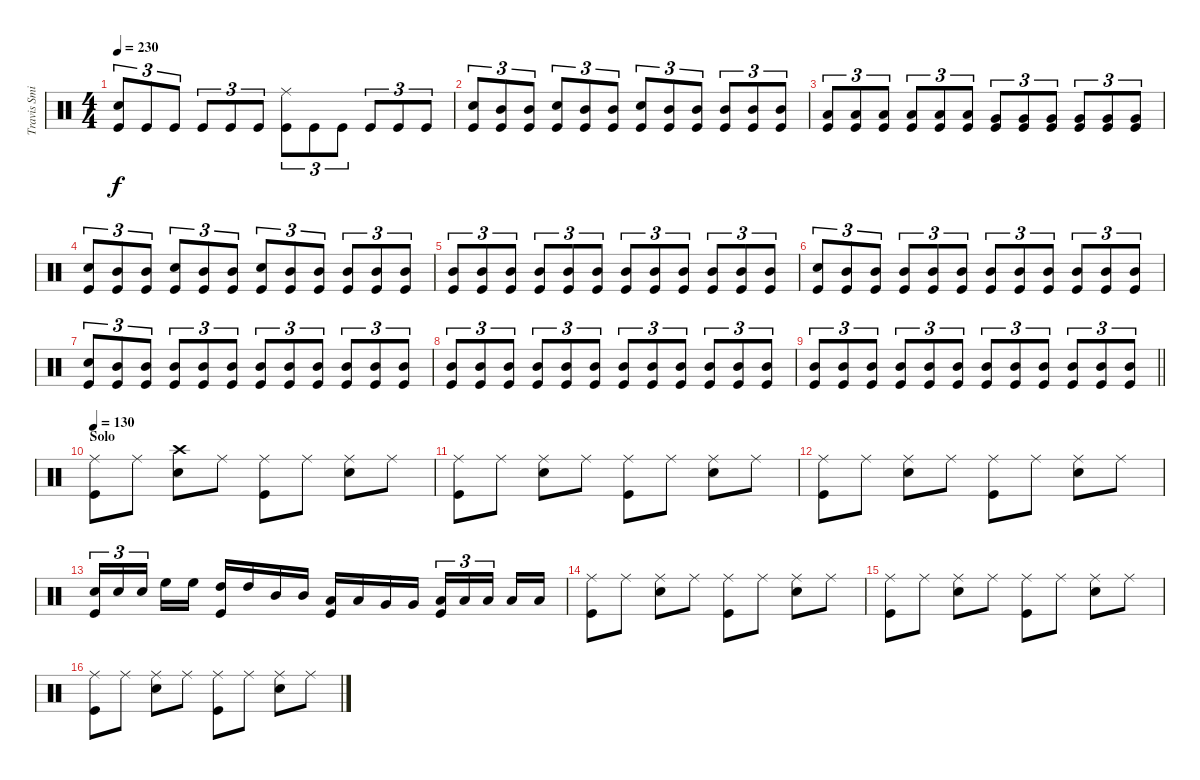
\track ("Travis Smith" "Travis Smi") {instrument percussion}
\staff {score}
\articulation defaults
\ts (4 4)
\tempo 230
\clef neutral
\ks c
("Snare (hit) 2" "Kick (hit)").8{tu (3 2) dy f} "Kick (hit)".8{tu (3 2)} "Kick (hit)".8{tu (3 2)} "Kick (hit)".8{tu (3 2)} "Kick (hit)".8{tu (3 2)} "Kick (hit)".8{tu (3 2)} ("Ride (middle)" "Kick (hit)").8{tu (3 2)} "Kick (hit)".8{tu (3 2)} "Kick (hit)".8{tu (3 2)} "Kick (hit)".8{tu (3 2)} "Kick (hit)".8{tu (3 2)} "Kick (hit)".8{tu (3 2)} |
("Snare (hit) 2" "Kick (hit)").8{tu (3 2)} ("Mid Tom (hit)" "Kick (hit)").8{tu (3 2)} ("Mid Tom (hit)" "Kick (hit)").8{tu (3 2)} ("Snare (hit) 2" "Kick (hit)").8{tu (3 2)} ("Mid Tom (hit)" "Kick (hit)").8{tu (3 2)} ("Mid Tom (hit)" "Kick (hit)").8{tu (3 2)} ("Snare (hit) 2" "Kick (hit)").8{tu (3 2)} ("Mid Tom (hit)" "Kick (hit)").8{tu (3 2)} ("Mid Tom (hit)" "Kick (hit)").8{tu (3 2)} ("Mid Tom (hit)" "Kick (hit)").8{tu (3 2)} ("Mid Tom (hit)" "Kick (hit)").8{tu (3 2)} ("Mid Tom (hit)" "Kick (hit)").8{tu (3 2)} |
("Low Tom (hit)" "Kick (hit)").8{tu (3 2)} ("Low Tom (hit)" "Kick (hit)").8{tu (3 2)} ("Low Tom (hit)" "Kick (hit)").8{tu (3 2)} ("Low Tom (hit)" "Kick (hit)").8{tu (3 2)} ("Low Tom (hit)" "Kick (hit)").8{tu (3 2)} ("Low Tom (hit)" "Kick (hit)").8{tu (3 2)} ("Very Low Tom (hit)" "Kick (hit)").8{tu (3 2)} ("Very Low Tom (hit)" "Kick (hit)").8{tu (3 2)} ("Very Low Tom (hit)" "Kick (hit)").8{tu (3 2)} ("Very Low Tom (hit)" "Kick (hit)").8{tu (3 2)} ("Very Low Tom (hit)" "Kick (hit)").8{tu (3 2)} ("Very Low Tom (hit)" "Kick (hit)").8{tu (3 2)} |
("Snare (hit) 2" "Kick (hit)").8{tu (3 2)} ("Mid Tom (hit)" "Kick (hit)").8{tu (3 2)} ("Mid Tom (hit)" "Kick (hit)").8{tu (3 2)} ("Snare (hit) 2" "Kick (hit)").8{tu (3 2)} ("Mid Tom (hit)" "Kick (hit)").8{tu (3 2)} ("Mid Tom (hit)" "Kick (hit)").8{tu (3 2)} ("Snare (hit) 2" "Kick (hit)").8{tu (3 2)} ("Mid Tom (hit)" "Kick (hit)").8{tu (3 2)} ("Mid Tom (hit)" "Kick (hit)").8{tu (3 2)} ("Mid Tom (hit)" "Kick (hit)").8{tu (3 2)} ("Mid Tom (hit)" "Kick (hit)").8{tu (3 2)} ("Mid Tom (hit)" "Kick (hit)").8{tu (3 2)} |
("Mid Tom (hit)" "Kick (hit)").8{tu (3 2)} ("Mid Tom (hit)" "Kick (hit)").8{tu (3 2)} ("Mid Tom (hit)" "Kick (hit)").8{tu (3 2)} ("Mid Tom (hit)" "Kick (hit)").8{tu (3 2)} ("Mid Tom (hit)" "Kick (hit)").8{tu (3 2)} ("Mid Tom (hit)" "Kick (hit)").8{tu (3 2)} ("Mid Tom (hit)" "Kick (hit)").8{tu (3 2)} ("Mid Tom (hit)" "Kick (hit)").8{tu (3 2)} ("Mid Tom (hit)" "Kick (hit)").8{tu (3 2)} ("Mid Tom (hit)" "Kick (hit)").8{tu (3 2)} ("Mid Tom (hit)" "Kick (hit)").8{tu (3 2)} ("Mid Tom (hit)" "Kick (hit)").8{tu (3 2)} |
("Snare (hit) 2" "Kick (hit)").8{tu (3 2)} ("Mid Tom (hit)" "Kick (hit)").8{tu (3 2)} ("Mid Tom (hit)" "Kick (hit)").8{tu (3 2)} ("Mid Tom (hit)" "Kick (hit)").8{tu (3 2)} ("Mid Tom (hit)" "Kick (hit)").8{tu (3 2)} ("Mid Tom (hit)" "Kick (hit)").8{tu (3 2)} ("Mid Tom (hit)" "Kick (hit)").8{tu (3 2)} ("Mid Tom (hit)" "Kick (hit)").8{tu (3 2)} ("Mid Tom (hit)" "Kick (hit)").8{tu (3 2)} ("Mid Tom (hit)" "Kick (hit)").8{tu (3 2)} ("Mid Tom (hit)" "Kick (hit)").8{tu (3 2)} ("Mid Tom (hit)" "Kick (hit)").8{tu (3 2)} |
("Snare (hit) 2" "Kick (hit)").8{tu (3 2)} ("Mid Tom (hit)" "Kick (hit)").8{tu (3 2)} ("Mid Tom (hit)" "Kick (hit)").8{tu (3 2)} ("Mid Tom (hit)" "Kick (hit)").8{tu (3 2)} ("Mid Tom (hit)" "Kick (hit)").8{tu (3 2)} ("Mid Tom (hit)" "Kick (hit)").8{tu (3 2)} ("Mid Tom (hit)" "Kick (hit)").8{tu (3 2)} ("Mid Tom (hit)" "Kick (hit)").8{tu (3 2)} ("Mid Tom (hit)" "Kick (hit)").8{tu (3 2)} ("Mid Tom (hit)" "Kick (hit)").8{tu (3 2)} ("Mid Tom (hit)" "Kick (hit)").8{tu (3 2)} ("Mid Tom (hit)" "Kick (hit)").8{tu (3 2)} |
("Mid Tom (hit)" "Kick (hit)").8{tu (3 2)} ("Mid Tom (hit)" "Kick (hit)").8{tu (3 2)} ("Mid Tom (hit)" "Kick (hit)").8{tu (3 2)} ("Mid Tom (hit)" "Kick (hit)").8{tu (3 2)} ("Mid Tom (hit)" "Kick (hit)").8{tu (3 2)} ("Mid Tom (hit)" "Kick (hit)").8{tu (3 2)} ("Mid Tom (hit)" "Kick (hit)").8{tu (3 2)} ("Mid Tom (hit)" "Kick (hit)").8{tu (3 2)} ("Mid Tom (hit)" "Kick (hit)").8{tu (3 2)} ("Mid Tom (hit)" "Kick (hit)").8{tu (3 2)} ("Mid Tom (hit)" "Kick (hit)").8{tu (3 2)} ("Mid Tom (hit)" "Kick (hit)").8{tu (3 2)} |
\barLineRight lightlight
("Mid Tom (hit)" "Kick (hit)").8{tu (3 2)} ("Mid Tom (hit)" "Kick (hit)").8{tu (3 2)} ("Mid Tom (hit)" "Kick (hit)").8{tu (3 2)} ("Mid Tom (hit)" "Kick (hit)").8{tu (3 2)} ("Mid Tom (hit)" "Kick (hit)").8{tu (3 2)} ("Mid Tom (hit)" "Kick (hit)").8{tu (3 2)} ("Mid Tom (hit)" "Kick (hit)").8{tu (3 2)} ("Mid Tom (hit)" "Kick (hit)").8{tu (3 2)} ("Mid Tom (hit)" "Kick (hit)").8{tu (3 2)} ("Mid Tom (hit)" "Kick (hit)").8{tu (3 2)} ("Mid Tom (hit)" "Kick (hit)").8{tu (3 2)} ("Mid Tom (hit)" "Kick (hit)").8{tu (3 2)} |
\section ("" "Solo")
\tempo 130
("Ride (middle)" "Kick (hit)").8 "Ride (middle)".8 ("Crash high (hit)" "Snare (hit) 2").8 "Ride (middle)".8 ("Ride (middle)" "Kick (hit)").8 "Ride (middle)".8 ("Ride (middle)" "Snare (hit) 2").8 "Ride (middle)".8 |
("Ride (middle)" "Kick (hit)").8 "Ride (middle)".8 ("Ride (middle)" "Snare (hit) 2").8 "Ride (middle)".8 ("Ride (middle)" "Kick (hit)").8 "Ride (middle)".8 ("Ride (middle)" "Snare (hit) 2").8 "Ride (middle)".8 |
("Ride (middle)" "Kick (hit)").8 "Ride (middle)".8 ("Ride (middle)" "Snare (hit) 2").8 "Ride (middle)".8 ("Ride (middle)" "Kick (hit)").8 "Ride (middle)".8 ("Ride (middle)" "Snare (hit) 2").8 "Ride (middle)".8 |
("Snare (hit) 2" "Kick (hit)").16{tu (3 2)} "Snare (hit) 2".16{tu (3 2)} "Snare (hit) 2".16{tu (3 2) beam splitsecondary} "High Floor Tom (hit)".16 "High Floor Tom (hit)".16 ("High Tom (hit)" "Kick (hit)").16 "High Tom (hit)".16 "Mid Tom (hit)".16 "Mid Tom (hit)".16 ("Low Tom (hit)" "Kick (hit)").16 "Low Tom (hit)".16 "Very Low Tom (hit)".16 "Very Low Tom (hit)".16 ("Low Floor Tom (hit)" "Kick (hit)").16{tu (3 2)} "Low Floor Tom (hit)".16{tu (3 2)} "Low Floor Tom (hit)".16{tu (3 2) beam splitsecondary} "Low Floor Tom (hit)".16 "Low Floor Tom (hit)".16 |
("Ride (middle)" "Kick (hit)").8 "Ride (middle)".8 ("Ride (middle)" "Snare (hit) 2").8 "Ride (middle)".8 ("Ride (middle)" "Kick (hit)").8 "Ride (middle)".8 ("Ride (middle)" "Snare (hit) 2").8 "Ride (middle)".8 |
("Ride (middle)" "Kick (hit)").8 "Ride (middle)".8 ("Ride (middle)" "Snare (hit) 2").8 "Ride (middle)".8 ("Ride (middle)" "Kick (hit)").8 "Ride (middle)".8 ("Ride (middle)" "Snare (hit) 2").8 "Ride (middle)".8 |
("Ride (middle)" "Kick (hit)").8 "Ride (middle)".8 ("Ride (middle)" "Snare (hit) 2").8 "Ride (middle)".8 ("Ride (middle)" "Kick (hit)").8 "Ride (middle)".8 ("Ride (middle)" "Snare (hit) 2").8 "Ride (middle)".8
